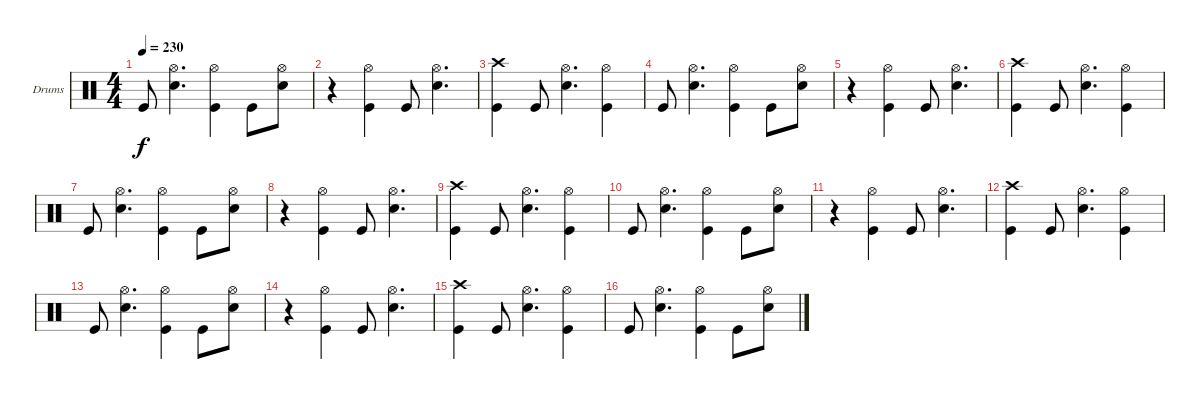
\bracketExtendMode groupsimilarinstruments
\firstSystemTrackNameOrientation horizontal
\otherSystemsTrackNameOrientation horizontal
\track ("Drumkit" "Drums") {instrument percussion}
\staff {score}
\articulation defaults
\ts (4 4)
\tempo 230
\clef neutral
\ks c "Kick (hit)".8{dy f}
("Hi-Hat (open)" "Snare (hit) 2").4{d} ("Hi-Hat (open)" "Kick (hit)").4 "Kick (hit)".8 ("Hi-Hat (open)" "Snare (hit) 2").8 |
r.4 ("Hi-Hat (open)" "Kick (hit)").4 "Kick (hit)".8 ("Hi-Hat (open)" "Snare (hit) 2").4{d} |
("Crash high (hit)" "Kick (hit)").4 "Kick (hit)".8 ("Hi-Hat (open)" "Snare (hit) 2").4{d} ("Hi-Hat (open)" "Kick (hit)").4 |
"Kick (hit)".8 ("Hi-Hat (open)" "Snare (hit) 2").4{d} ("Hi-Hat (open)" "Kick (hit)").4 "Kick (hit)".8 ("Hi-Hat (open)" "Snare (hit) 2").8 |
r.4 ("Hi-Hat (open)" "Kick (hit)").4 "Kick (hit)".8 ("Hi-Hat (open)" "Snare (hit) 2").4{d} |
("Crash high (hit)" "Kick (hit)").4 "Kick (hit)".8 ("Hi-Hat (open)" "Snare (hit) 2").4{d} ("Hi-Hat (open)" "Kick (hit)").4 |
"Kick (hit)".8 ("Hi-Hat (open)" "Snare (hit) 2").4{d} ("Hi-Hat (open)" "Kick (hit)").4 "Kick (hit)".8 ("Hi-Hat (open)" "Snare (hit) 2").8 |
r.4 ("Hi-Hat (open)" "Kick (hit)").4 "Kick (hit)".8 ("Hi-Hat (open)" "Snare (hit) 2").4{d} |
("Crash high (hit)" "Kick (hit)").4 "Kick (hit)".8 ("Hi-Hat (open)" "Snare (hit) 2").4{d} ("Hi-Hat (open)" "Kick (hit)").4 |
"Kick (hit)".8 ("Hi-Hat (open)" "Snare (hit) 2").4{d} ("Hi-Hat (open)" "Kick (hit)").4 "Kick (hit)".8 ("Hi-Hat (open)" "Snare (hit) 2").8 |
r.4 ("Hi-Hat (open)" "Kick (hit)").4 "Kick (hit)".8 ("Hi-Hat (open)" "Snare (hit) 2").4{d} |
("Crash high (hit)" "Kick (hit)").4 "Kick (hit)".8 ("Hi-Hat (open)" "Snare (hit) 2").4{d} ("Hi-Hat (open)" "Kick (hit)").4 |
"Kick (hit)".8 ("Hi-Hat (open)" "Snare (hit) 2").4{d} ("Hi-Hat (open)" "Kick (hit)").4 "Kick (hit)".8 ("Hi-Hat (open)" "Snare (hit) 2").8 |
r.4 ("Hi-Hat (open)" "Kick (hit)").4 "Kick (hit)".8 ("Hi-Hat (open)" "Snare (hit) 2").4{d} |
("Crash high (hit)" "Kick (hit)").4 "Kick (hit)".8 ("Hi-Hat (open)" "Snare (hit) 2").4{d} ("Hi-Hat (open)" "Kick (hit)").4 |
"Kick (hit)".8 ("Hi-Hat (open)" "Snare (hit) 2").4{d} ("Hi-Hat (open)" "Kick (hit)").4 "Kick (hit)".8 ("Hi-Hat (open)" "Snare (hit) 2").8
